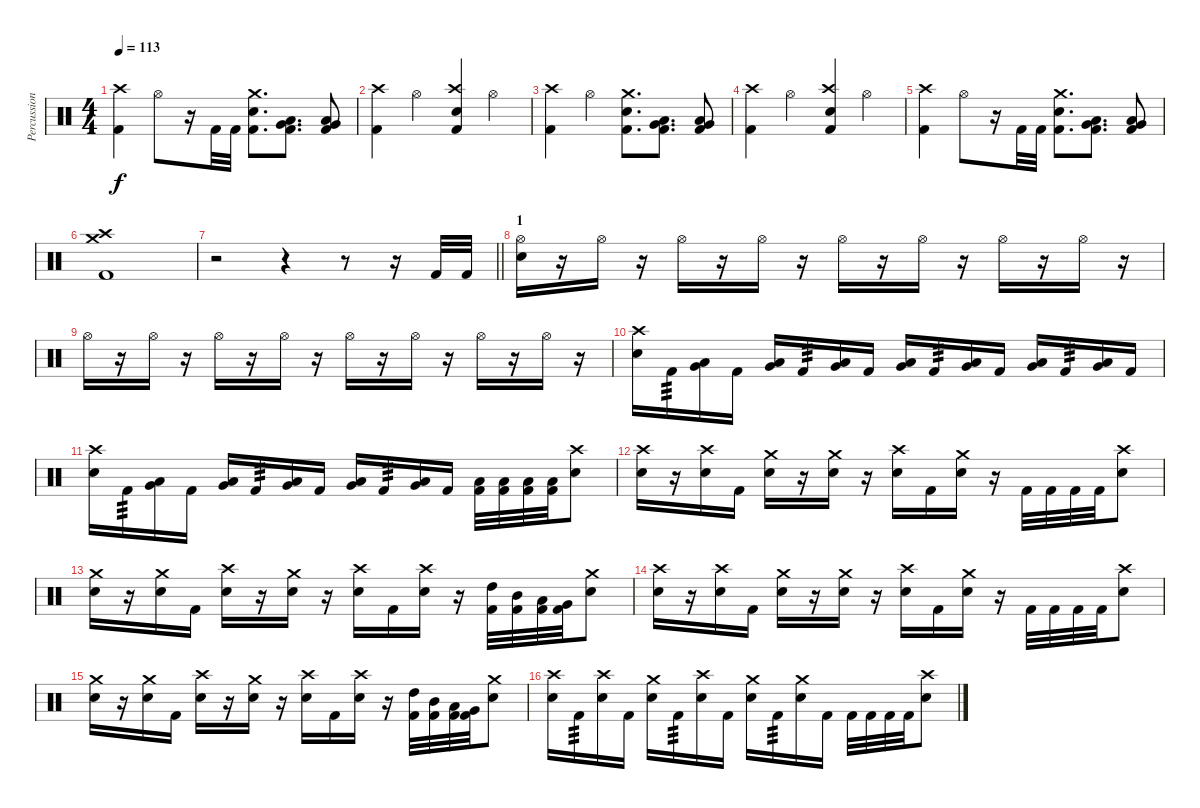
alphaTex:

\track ("Percussion" "Percussion") {instrument percussion}
\staff {score}
\articulation defaults
\ts (4 4)
\tempo 113
\clef neutral
\ks c
("Kick (hit) 2" "Crash high (hit)").4{dy f} "Hi-Hat (open)".8 r.16 "Kick (hit) 2".32 "Kick (hit) 2".32 ("Kick (hit) 2" "Electric Snare (hit)" "Crash medium (hit)").8{d} ("Kick (hit) 2" "Low Tom (hit)" "Very Low Tom (hit)").8{d} ("Kick (hit) 2" "Very Low Tom (hit)" "Low Floor Tom (hit)").8 |
("Kick (hit) 2" "Crash high (hit)").4 "Hi-Hat (open)".4 ("Kick (hit) 2" "Electric Snare (hit)" "Crash high (hit)").4 "Hi-Hat (open)".4 |
("Kick (hit) 2" "Crash high (hit)").4 "Hi-Hat (open)".4 ("Kick (hit) 2" "Electric Snare (hit)" "Crash medium (hit)").8{d} ("Kick (hit) 2" "Low Tom (hit)" "Very Low Tom (hit)").8{d} ("Kick (hit) 2" "Very Low Tom (hit)" "Low Floor Tom (hit)").8 |
("Kick (hit) 2" "Crash high (hit)").4 "Hi-Hat (open)".4 ("Kick (hit) 2" "Electric Snare (hit)" "Crash high (hit)").4 "Hi-Hat (open)".4 |
("Kick (hit) 2" "Crash high (hit)").4 "Hi-Hat (open)".8 r.16 "Kick (hit) 2".32 "Kick (hit) 2".32 ("Kick (hit) 2" "Electric Snare (hit)" "Crash medium (hit)").8{d} ("Kick (hit) 2" "Low Tom (hit)" "Very Low Tom (hit)").8{d} ("Kick (hit) 2" "Very Low Tom (hit)" "Low Floor Tom (hit)").8 |
("Kick (hit) 2" "Crash high (hit)" "Crash medium (hit)").1 |
\barLineRight lightlight
r.2 r.4 r.8 r.16 "Kick (hit) 2".32 "Kick (hit) 2".32 |
\section ("" "1")
("Electric Snare (hit)" "Hi-Hat (open)").16 r.16 "Hi-Hat (open)".16 r.16 "Hi-Hat (open)".16 r.16 "Hi-Hat (open)".16 r.16 "Hi-Hat (open)".16 r.16 "Hi-Hat (open)".16 r.16 "Hi-Hat (open)".16 r.16 "Hi-Hat (open)".16 r.16 |
"Hi-Hat (open)".16 r.16 "Hi-Hat (open)".16 r.16 "Hi-Hat (open)".16 r.16 "Hi-Hat (open)".16 r.16 "Hi-Hat (open)".16 r.16 "Hi-Hat (open)".16 r.16 "Hi-Hat (open)".16 r.16 "Hi-Hat (open)".16 r.16 |
("Crash high (hit)" "Electric Snare (hit)").16 "Kick (hit) 2".16{tp 3} ("Very Low Tom (hit)" "Low Floor Tom (hit)").16 "Kick (hit) 2".16 ("Very Low Tom (hit)" "Low Floor Tom (hit)").16 "Kick (hit) 2".16{tp 3} ("Very Low Tom (hit)" "Low Floor Tom (hit)").16 "Kick (hit) 2".16 ("Very Low Tom (hit)" "Low Floor Tom (hit)").16 "Kick (hit) 2".16{tp 3} ("Very Low Tom (hit)" "Low Floor Tom (hit)").16 "Kick (hit) 2".16 ("Very Low Tom (hit)" "Low Floor Tom (hit)").16 "Kick (hit) 2".16{tp 3} ("Very Low Tom (hit)" "Low Floor Tom (hit)").16 "Kick (hit) 2".16 |
("Crash high (hit)" "Electric Snare (hit)").16 "Kick (hit) 2".16{tp 3} ("Very Low Tom (hit)" "Low Floor Tom (hit)").16 "Kick (hit) 2".16 ("Very Low Tom (hit)" "Low Floor Tom (hit)").16 "Kick (hit) 2".16{tp 3} ("Very Low Tom (hit)" "Low Floor Tom (hit)").16 "Kick (hit) 2".16 ("Very Low Tom (hit)" "Low Floor Tom (hit)").16 "Kick (hit) 2".16{tp 3} ("Very Low Tom (hit)" "Low Floor Tom (hit)").16 "Kick (hit) 2".16 ("Low Floor Tom (hit)" "Kick (hit) 2").32 ("Low Floor Tom (hit)" "Kick (hit) 2").32 ("Low Floor Tom (hit)" "Kick (hit) 2").32 ("Low Floor Tom (hit)" "Kick (hit) 2").32 ("Crash high (hit)" "Electric Snare (hit)").8 |
("Crash high (hit)" "Electric Snare (hit)").16 r.16 ("Crash high (hit)" "Electric Snare (hit)").16 "Kick (hit) 2".16 ("Crash medium (hit)" "Electric Snare (hit)").16 r.16 ("Crash medium (hit)" "Electric Snare (hit)").16 r.16 ("Crash high (hit)" "Electric Snare (hit)").16 "Kick (hit) 2".16 ("Crash medium (hit)" "Electric Snare (hit)").16 r.16 "Kick (hit) 2".32 "Kick (hit) 2".32 "Kick (hit) 2".32 "Kick (hit) 2".32 ("Crash high (hit)" "Electric Snare (hit)").8 |
("Crash medium (hit)" "Electric Snare (hit)").16 r.16 ("Crash medium (hit)" "Electric Snare (hit)").16 "Kick (hit) 2".16 ("Crash high (hit)" "Electric Snare (hit)").16 r.16 ("Crash medium (hit)" "Electric Snare (hit)").16 r.16 ("Crash high (hit)" "Electric Snare (hit)").16 "Kick (hit) 2".16 ("Crash high (hit)" "Electric Snare (hit)").16 r.16 ("High Tom (hit)" "Kick (hit) 2").32 ("Mid Tom (hit)" "Kick (hit) 2").32 ("Low Tom (hit)" "Kick (hit) 2").32 ("Very Low Tom (hit)" "Kick (hit) 2").32 ("Crash medium (hit)" "Electric Snare (hit)").8 |
("Crash high (hit)" "Electric Snare (hit)").16 r.16 ("Crash high (hit)" "Electric Snare (hit)").16 "Kick (hit) 2".16 ("Crash medium (hit)" "Electric Snare (hit)").16 r.16 ("Crash medium (hit)" "Electric Snare (hit)").16 r.16 ("Crash high (hit)" "Electric Snare (hit)").16 "Kick (hit) 2".16 ("Crash medium (hit)" "Electric Snare (hit)").16 r.16 "Kick (hit) 2".32 "Kick (hit) 2".32 "Kick (hit) 2".32 "Kick (hit) 2".32 ("Crash high (hit)" "Electric Snare (hit)").8 |
("Crash medium (hit)" "Electric Snare (hit)").16 r.16 ("Crash medium (hit)" "Electric Snare (hit)").16 "Kick (hit) 2".16 ("Crash high (hit)" "Electric Snare (hit)").16 r.16 ("Crash medium (hit)" "Electric Snare (hit)").16 r.16 ("Crash high (hit)" "Electric Snare (hit)").16 "Kick (hit) 2".16 ("Crash high (hit)" "Electric Snare (hit)").16 r.16 ("High Tom (hit)" "Kick (hit) 2").32 ("Mid Tom (hit)" "Kick (hit) 2").32 ("Low Tom (hit)" "Kick (hit) 2").32 ("Very Low Tom (hit)" "Kick (hit) 2").32 ("Crash medium (hit)" "Electric Snare (hit)").8 |
("Crash high (hit)" "Electric Snare (hit)").16 "Kick (hit) 2".16{tp 3} ("Crash high (hit)" "Electric Snare (hit)").16 "Kick (hit) 2".16 ("Crash medium (hit)" "Electric Snare (hit)").16 "Kick (hit) 2".16{tp 3} ("Crash high (hit)" "Electric Snare (hit)").16 "Kick (hit) 2".16 ("Crash medium (hit)" "Electric Snare (hit)").16 "Kick (hit) 2".16{tp 3} ("Crash medium (hit)" "Electric Snare (hit)").16 "Kick (hit) 2".16 "Kick (hit) 2".32 "Kick (hit) 2".32 "Kick (hit) 2".32 "Kick (hit) 2".32 ("Crash high (hit)" "Electric Snare (hit)").8
